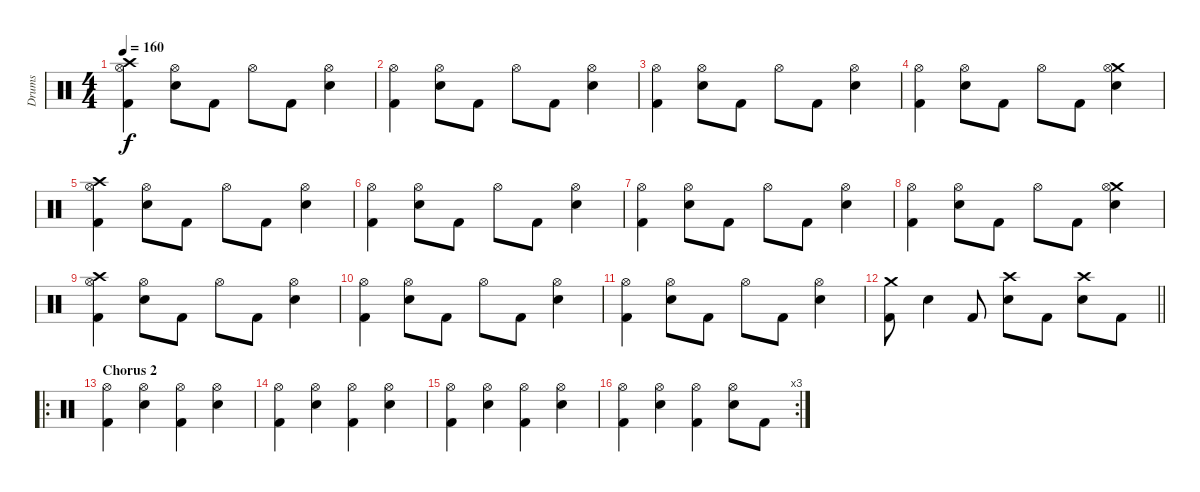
\track ("Drums" "Drums") {instrument percussion}
\staff {score}
\articulation defaults
\ts (4 4)
\tempo 160
\clef neutral
\ks c
("Crash high (hit)" "Hi-Hat (open)" "Kick (hit) 2").4{dy f} ("Hi-Hat (open)" "Electric Snare (hit)").8 "Kick (hit) 2".8 "Hi-Hat (open)".8 "Kick (hit) 2".8 ("Hi-Hat (open)" "Electric Snare (hit)").4 |
("Hi-Hat (open)" "Kick (hit) 2").4 ("Hi-Hat (open)" "Electric Snare (hit)").8 "Kick (hit) 2".8 "Hi-Hat (open)".8 "Kick (hit) 2".8 ("Hi-Hat (open)" "Electric Snare (hit)").4 |
("Hi-Hat (open)" "Kick (hit) 2").4 ("Hi-Hat (open)" "Electric Snare (hit)").8 "Kick (hit) 2".8 "Hi-Hat (open)".8 "Kick (hit) 2".8 ("Hi-Hat (open)" "Electric Snare (hit)").4 |
("Hi-Hat (open)" "Kick (hit) 2").4 ("Hi-Hat (open)" "Electric Snare (hit)").8 "Kick (hit) 2".8 "Hi-Hat (open)".8 "Kick (hit) 2".8 ("Crash medium (hit)" "Hi-Hat (open)" "Electric Snare (hit)").4 |
("Crash high (hit)" "Hi-Hat (open)" "Kick (hit) 2").4 ("Hi-Hat (open)" "Electric Snare (hit)").8 "Kick (hit) 2".8 "Hi-Hat (open)".8 "Kick (hit) 2".8 ("Hi-Hat (open)" "Electric Snare (hit)").4 |
("Hi-Hat (open)" "Kick (hit) 2").4 ("Hi-Hat (open)" "Electric Snare (hit)").8 "Kick (hit) 2".8 "Hi-Hat (open)".8 "Kick (hit) 2".8 ("Hi-Hat (open)" "Electric Snare (hit)").4 |
("Hi-Hat (open)" "Kick (hit) 2").4 ("Hi-Hat (open)" "Electric Snare (hit)").8 "Kick (hit) 2".8 "Hi-Hat (open)".8 "Kick (hit) 2".8 ("Hi-Hat (open)" "Electric Snare (hit)").4 |
("Hi-Hat (open)" "Kick (hit) 2").4 ("Hi-Hat (open)" "Electric Snare (hit)").8 "Kick (hit) 2".8 "Hi-Hat (open)".8 "Kick (hit) 2".8 ("Crash medium (hit)" "Hi-Hat (open)" "Electric Snare (hit)").4 |
("Crash high (hit)" "Hi-Hat (open)" "Kick (hit) 2").4 ("Hi-Hat (open)" "Electric Snare (hit)").8 "Kick (hit) 2".8 "Hi-Hat (open)".8 "Kick (hit) 2".8 ("Hi-Hat (open)" "Electric Snare (hit)").4 |
("Hi-Hat (open)" "Kick (hit) 2").4 ("Hi-Hat (open)" "Electric Snare (hit)").8 "Kick (hit) 2".8 "Hi-Hat (open)".8 "Kick (hit) 2".8 ("Hi-Hat (open)" "Electric Snare (hit)").4 |
("Hi-Hat (open)" "Kick (hit) 2").4 ("Hi-Hat (open)" "Electric Snare (hit)").8 "Kick (hit) 2".8 "Hi-Hat (open)".8 "Kick (hit) 2".8 ("Hi-Hat (open)" "Electric Snare (hit)").4 |
\barLineRight lightlight
("Crash medium (hit)" "Kick (hit) 2").8 "Electric Snare (hit)".4 "Kick (hit) 2".8 ("Crash high (hit)" "Electric Snare (hit)").8 "Kick (hit) 2".8 ("Crash high (hit)" "Electric Snare (hit)").8 "Kick (hit) 2".8 |
\ro
\section ("" "Chorus 2")
("Hi-Hat (open)" "Kick (hit) 2").4 ("Hi-Hat (open)" "Electric Snare (hit)").4 ("Hi-Hat (open)" "Kick (hit) 2").4 ("Hi-Hat (open)" "Electric Snare (hit)").4 |
("Hi-Hat (open)" "Kick (hit) 2").4 ("Hi-Hat (open)" "Electric Snare (hit)").4 ("Hi-Hat (open)" "Kick (hit) 2").4 ("Hi-Hat (open)" "Electric Snare (hit)").4 |
("Hi-Hat (open)" "Kick (hit) 2").4 ("Hi-Hat (open)" "Electric Snare (hit)").4 ("Hi-Hat (open)" "Kick (hit) 2").4 ("Hi-Hat (open)" "Electric Snare (hit)").4 |
\rc 3
("Hi-Hat (open)" "Kick (hit) 2").4 ("Hi-Hat (open)" "Electric Snare (hit)").4 ("Hi-Hat (open)" "Kick (hit) 2").4 ("Hi-Hat (open)" "Electric Snare (hit)").8 "Kick (hit) 2".8
